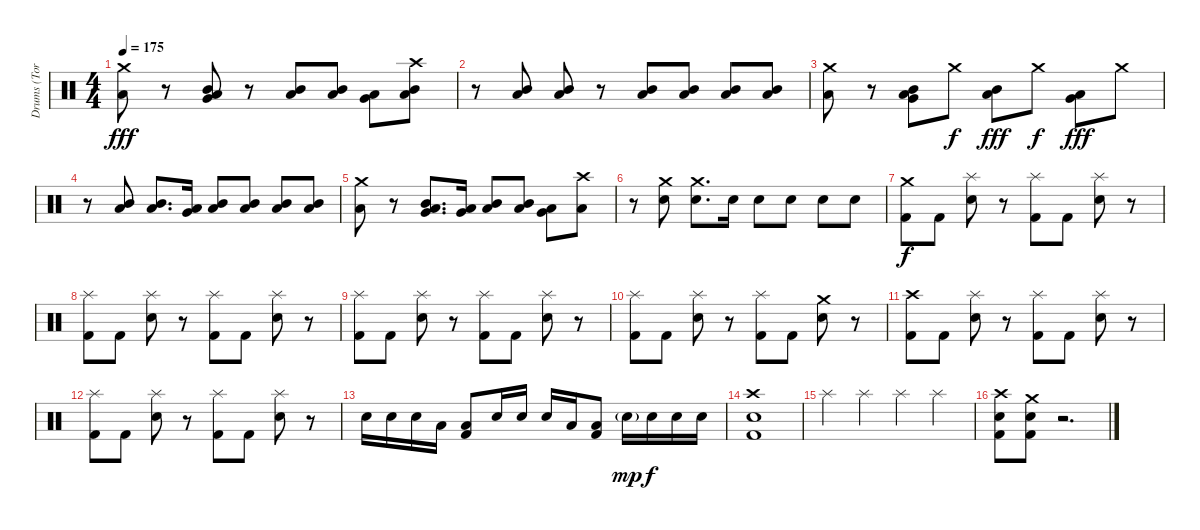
\track ("Drums (Tora)" "Drums (Tor") {instrument percussion}
\staff {score}
\articulation defaults
\ts (4 4)
\tempo 175
\clef neutral
\ks c
("Crash medium (hit)" "Low Tom (hit)").8{dy fff} r.8 ("Mid Tom (hit)" "Low Tom (hit)" "Very Low Tom (hit)").8 r.8 ("Mid Tom (hit)" "Low Tom (hit)").8 ("Mid Tom (hit)" "Low Tom (hit)").8 ("Very Low Tom (hit)" "Low Floor Tom (hit)").8 ("Crash high (hit)" "Mid Tom (hit)" "Low Tom (hit)").8 |
r.8 ("Mid Tom (hit)" "Low Tom (hit)").8 ("Mid Tom (hit)" "Low Tom (hit)").8 r.8 ("Mid Tom (hit)" "Low Tom (hit)").8 ("Mid Tom (hit)" "Low Tom (hit)").8 ("Mid Tom (hit)" "Low Tom (hit)").8 ("Mid Tom (hit)" "Low Tom (hit)").8 |
("Crash medium (hit)" "Low Tom (hit)").8 r.8 ("Mid Tom (hit)" "Low Tom (hit)" "Very Low Tom (hit)").8 "Crash medium (hit)".8{dy f} ("Mid Tom (hit)" "Low Tom (hit)").8{dy fff} "Crash medium (hit)".8{dy f} ("Very Low Tom (hit)" "Low Floor Tom (hit)").8{dy fff} "Crash medium (hit)".8 |
r.8 ("Mid Tom (hit)" "Low Tom (hit)").8 ("Mid Tom (hit)" "Low Tom (hit)").8{d} ("Very Low Tom (hit)" "Low Floor Tom (hit)").16 ("Mid Tom (hit)" "Low Tom (hit)").8 ("Mid Tom (hit)" "Low Tom (hit)").8 ("Mid Tom (hit)" "Low Tom (hit)").8 ("Mid Tom (hit)" "Low Tom (hit)").8 |
("Crash medium (hit)" "Low Tom (hit)").8 r.8 ("Mid Tom (hit)" "Low Tom (hit)" "Very Low Tom (hit)").8{d} ("Very Low Tom (hit)" "Low Floor Tom (hit)").16 ("Mid Tom (hit)" "Low Tom (hit)").8 ("Mid Tom (hit)" "Low Tom (hit)").8 ("Very Low Tom (hit)" "Low Floor Tom (hit)").8 ("Crash high (hit)" "Low Tom (hit)").8 |
r.8 ("Crash medium (hit)" "Electric Snare (hit)").8 ("Crash medium (hit)" "Electric Snare (hit)").8{d} "Electric Snare (hit)".16 "Electric Snare (hit)".8 "Electric Snare (hit)".8 "Electric Snare (hit)".8 "Electric Snare (hit)".8 |
("Crash medium (hit)" "Kick (hit) 2").8{dy f} "Kick (hit) 2".8 ("Splash (hit)" "Electric Snare (hit)").8 r.8 ("Splash (hit)" "Kick (hit) 2").8 "Kick (hit) 2".8 ("Splash (hit)" "Electric Snare (hit)").8 r.8 |
("Splash (hit)" "Kick (hit) 2").8 "Kick (hit) 2".8 ("Splash (hit)" "Electric Snare (hit)").8 r.8 ("Splash (hit)" "Kick (hit) 2").8 "Kick (hit) 2".8 ("Splash (hit)" "Electric Snare (hit)").8 r.8 |
("Splash (hit)" "Kick (hit) 2").8 "Kick (hit) 2".8 ("Splash (hit)" "Electric Snare (hit)").8 r.8 ("Splash (hit)" "Kick (hit) 2").8 "Kick (hit) 2".8 ("Splash (hit)" "Electric Snare (hit)").8 r.8 |
("Splash (hit)" "Kick (hit) 2").8 "Kick (hit) 2".8 ("Splash (hit)" "Electric Snare (hit)").8 r.8 ("Splash (hit)" "Kick (hit) 2").8 "Kick (hit) 2".8 ("Crash medium (hit)" "Electric Snare (hit)").8 r.8 |
("Crash high (hit)" "Kick (hit) 2").8 "Kick (hit) 2".8 ("Splash (hit)" "Electric Snare (hit)").8 r.8 ("Splash (hit)" "Kick (hit) 2").8 "Kick (hit) 2".8 ("Splash (hit)" "Electric Snare (hit)").8 r.8 |
("Splash (hit)" "Kick (hit) 2").8 "Kick (hit) 2".8 ("Splash (hit)" "Electric Snare (hit)").8 r.8 ("Splash (hit)" "Kick (hit) 2").8 "Kick (hit) 2".8 ("Splash (hit)" "Electric Snare (hit)").8 r.8 |
"Electric Snare (hit)".16 "Electric Snare (hit)".16 "Electric Snare (hit)".16 "Low Floor Tom (hit)".16 ("Low Floor Tom (hit)" "Kick (hit) 2").8 "Electric Snare (hit)".16 "Electric Snare (hit)".16 "Electric Snare (hit)".16 "Low Floor Tom (hit)".16 ("Low Floor Tom (hit)" "Kick (hit) 2").8 "Electric Snare (hit)"{g}.16{dy mp} "Electric Snare (hit)".16{dy f} "Electric Snare (hit)".16 "Electric Snare (hit)".16 |
("Crash high (hit)" "Electric Snare (hit)" "Kick (hit) 2").1 |
"Splash (hit)".4 "Splash (hit)".4 "Splash (hit)".4 "Splash (hit)".4 |
("Crash high (hit)" "Electric Snare (hit)" "Kick (hit) 2").8 ("Crash medium (hit)" "Electric Snare (hit)" "Kick (hit) 2").8 r.2{d}
